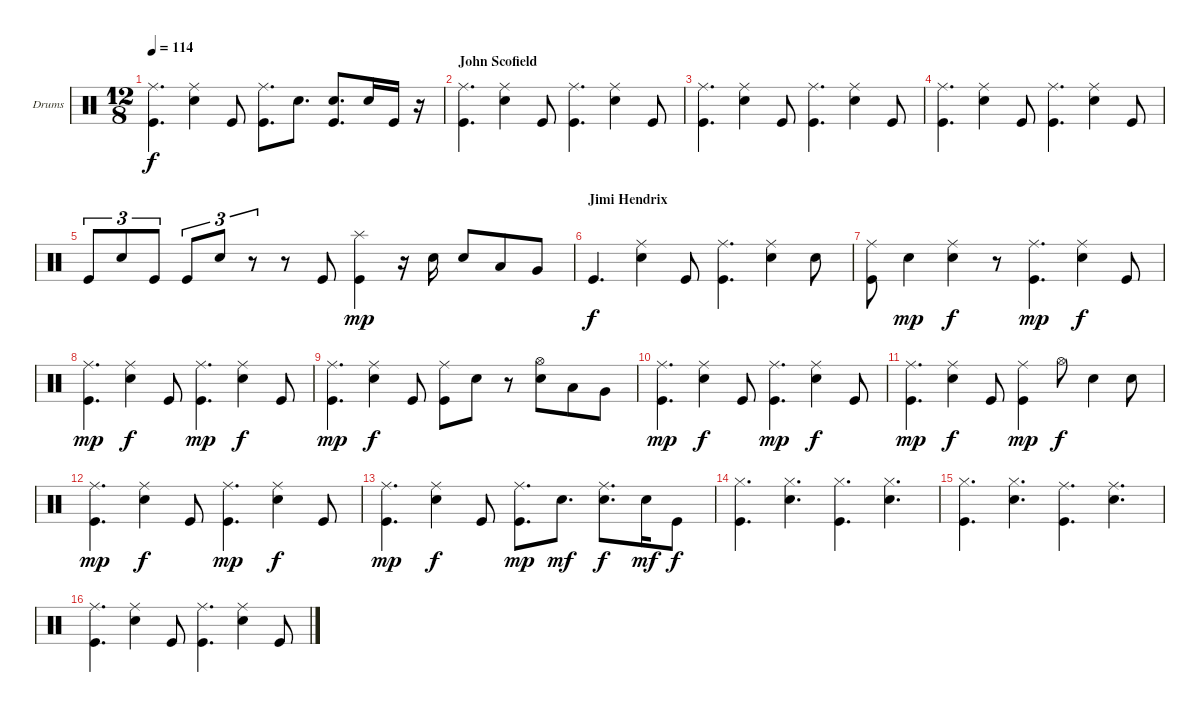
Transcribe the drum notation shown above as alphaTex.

\defaultSystemsLayout 4
\bracketExtendMode groupsimilarinstruments
\firstSystemTrackNameOrientation horizontal
\otherSystemsTrackNameOrientation horizontal
\track ("Drumkit" "Drums") {instrument percussion}
\staff {score}
\articulation defaults
\ts (12 8)
\tempo 114
\clef neutral
\ks c
("Ride (middle)" "Kick (hit)").4{d dy f} ("Ride (middle)" "Snare (hit) 2").4 "Kick (hit)".8 ("Ride (middle)" "Kick (hit)").8{d} "Snare (hit) 2".8{d} ("Snare (hit) 2" "Kick (hit)").8{d} "Snare (hit) 2".16 "Kick (hit)".16 r.16 |
\section ("" "John Scofield")
("Ride (middle)" "Kick (hit)").4{d} ("Ride (middle)" "Snare (hit) 2").4 "Kick (hit)".8 ("Ride (middle)" "Kick (hit)").4{d} ("Ride (middle)" "Snare (hit) 2").4 "Kick (hit)".8 |
("Ride (middle)" "Kick (hit)").4{d} ("Ride (middle)" "Snare (hit) 2").4 "Kick (hit)".8 ("Ride (middle)" "Kick (hit)").4{d} ("Ride (middle)" "Snare (hit) 2").4 "Kick (hit)".8 |
("Ride (middle)" "Kick (hit)").4{d} ("Ride (middle)" "Snare (hit) 2").4 "Kick (hit)".8 ("Ride (middle)" "Kick (hit)").4{d} ("Ride (middle)" "Snare (hit) 2").4 "Kick (hit)".8 |
"Kick (hit)".8{tu (3 2)} "Snare (hit) 2".8{tu (3 2)} "Kick (hit)".8{tu (3 2)} "Kick (hit)".8{tu (3 2)} "Snare (hit) 2".8{tu (3 2)} r.8{tu (3 2)} r.8 "Kick (hit)".8 ("Splash (hit)" "Kick (hit)").4{dy mp} r.16 "Snare (hit) 2".16 "Snare (hit) 2".8 "Low Tom (hit)".8 "Very Low Tom (hit)".8 |
\section ("" "Jimi Hendrix")
"Kick (hit)".4{d dy f} ("Ride (middle)" "Snare (hit) 2").4 "Kick (hit)".8 ("Ride (middle)" "Kick (hit)").4{d} ("Ride (middle)" "Snare (hit) 2").4 "Snare (hit) 2".8 |
("Ride (middle)" "Kick (hit)").8 "Snare (hit) 2".4{dy mp} ("Ride (middle)" "Snare (hit) 2").4{dy f} r.8 ("Ride (middle)" "Kick (hit)").4{d dy mp} ("Ride (middle)" "Snare (hit) 2").4{dy f} "Kick (hit)".8 |
("Ride (middle)" "Kick (hit)").4{d dy mp} ("Ride (middle)" "Snare (hit) 2").4{dy f} "Kick (hit)".8 ("Ride (middle)" "Kick (hit)").4{d dy mp} ("Ride (middle)" "Snare (hit) 2").4{dy f} "Kick (hit)".8 |
("Ride (middle)" "Kick (hit)").4{d dy mp} ("Ride (middle)" "Snare (hit) 2").4{dy f} "Kick (hit)".8 ("Ride (middle)" "Kick (hit)").8 "Snare (hit) 2".8 r.8 ("Hi-Hat (open)" "Snare (hit) 2").8 "Low Tom (hit)".8 "Very Low Tom (hit)".8 |
("Ride (middle)" "Kick (hit)").4{d dy mp} ("Ride (middle)" "Snare (hit) 2").4{dy f} "Kick (hit)".8 ("Ride (middle)" "Kick (hit)").4{d dy mp} ("Ride (middle)" "Snare (hit) 2").4{dy f} "Kick (hit)".8 |
("Ride (middle)" "Kick (hit)").4{d dy mp} ("Ride (middle)" "Snare (hit) 2").4{dy f} "Kick (hit)".8 ("Ride (middle)" "Kick (hit)").4{dy mp} "Hi-Hat (open)".8{dy f} "Snare (hit) 2".4 "Snare (hit) 2".8 |
("Ride (middle)" "Kick (hit)").4{d dy mp} ("Ride (middle)" "Snare (hit) 2").4{dy f} "Kick (hit)".8 ("Ride (middle)" "Kick (hit)").4{d dy mp} ("Ride (middle)" "Snare (hit) 2").4{dy f} "Kick (hit)".8 |
("Ride (middle)" "Kick (hit)").4{d dy mp} ("Ride (middle)" "Snare (hit) 2").4{dy f} "Kick (hit)".8 ("Ride (middle)" "Kick (hit)").8{d dy mp} "Snare (hit) 2".8{d dy mf} ("Ride (middle)" "Snare (hit) 2").8{d dy f} "Snare (hit) 2".16{dy mf} "Kick (hit)".8{dy f} |
("Hi-Hat (closed)" "Kick (hit)").4{d} ("Hi-Hat (closed)" "Snare (hit) 2").4{d} ("Hi-Hat (closed)" "Kick (hit)").4{d} ("Hi-Hat (closed)" "Snare (hit) 2").4{d} |
("Hi-Hat (closed)" "Kick (hit)").4{d} ("Hi-Hat (closed)" "Snare (hit) 2").4{d} ("Ride (middle)" "Kick (hit)").4{d} ("Ride (middle)" "Snare (hit) 2").4{d} |
("Ride (middle)" "Kick (hit)").4{d} ("Ride (middle)" "Snare (hit) 2").4 "Kick (hit)".8 ("Ride (middle)" "Kick (hit)").4{d} ("Ride (middle)" "Snare (hit) 2").4 "Kick (hit)".8
